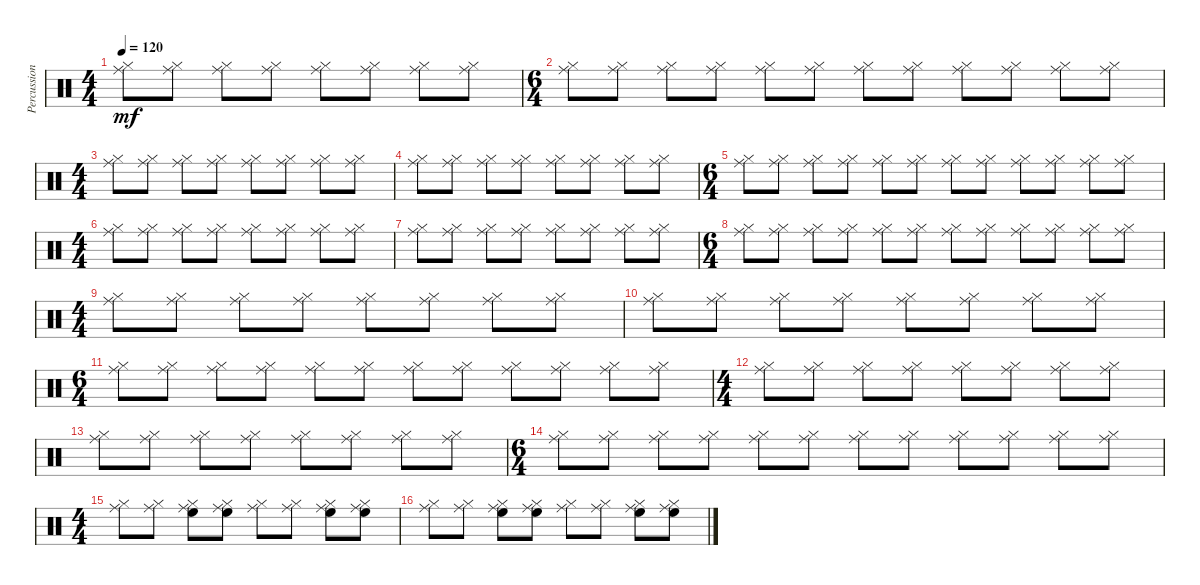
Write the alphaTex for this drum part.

\track ("Percussion" "Percussion") {instrument percussion}
\staff {score}
\articulation defaults
\ts (4 4)
\tempo 120
\clef neutral
\ks c
("Ride (middle)" "Hi-Hat (closed)").8{dy mf} ("Ride (middle)" "Hi-Hat (closed)").8 ("Ride (middle)" "Hi-Hat (closed)").8 ("Ride (middle)" "Hi-Hat (closed)").8 ("Ride (middle)" "Hi-Hat (closed)").8 ("Ride (middle)" "Hi-Hat (closed)").8 ("Ride (middle)" "Hi-Hat (closed)").8 ("Ride (middle)" "Hi-Hat (closed)").8 |
\ts (6 4)
("Ride (middle)" "Hi-Hat (closed)").8 ("Ride (middle)" "Hi-Hat (closed)").8 ("Ride (middle)" "Hi-Hat (closed)").8 ("Ride (middle)" "Hi-Hat (closed)").8 ("Ride (middle)" "Hi-Hat (closed)").8 ("Ride (middle)" "Hi-Hat (closed)").8 ("Ride (middle)" "Hi-Hat (closed)").8 ("Ride (middle)" "Hi-Hat (closed)").8 ("Ride (middle)" "Hi-Hat (closed)").8 ("Ride (middle)" "Hi-Hat (closed)").8 ("Ride (middle)" "Hi-Hat (closed)").8 ("Ride (middle)" "Hi-Hat (closed)").8 |
\ts (4 4)
("Ride (middle)" "Hi-Hat (closed)").8 ("Ride (middle)" "Hi-Hat (closed)").8 ("Ride (middle)" "Hi-Hat (closed)").8 ("Ride (middle)" "Hi-Hat (closed)").8 ("Ride (middle)" "Hi-Hat (closed)").8 ("Ride (middle)" "Hi-Hat (closed)").8 ("Ride (middle)" "Hi-Hat (closed)").8 ("Ride (middle)" "Hi-Hat (closed)").8 |
("Ride (middle)" "Hi-Hat (closed)").8 ("Ride (middle)" "Hi-Hat (closed)").8 ("Ride (middle)" "Hi-Hat (closed)").8 ("Ride (middle)" "Hi-Hat (closed)").8 ("Ride (middle)" "Hi-Hat (closed)").8 ("Ride (middle)" "Hi-Hat (closed)").8 ("Ride (middle)" "Hi-Hat (closed)").8 ("Ride (middle)" "Hi-Hat (closed)").8 |
\ts (6 4)
("Ride (middle)" "Hi-Hat (closed)").8 ("Ride (middle)" "Hi-Hat (closed)").8 ("Ride (middle)" "Hi-Hat (closed)").8 ("Ride (middle)" "Hi-Hat (closed)").8 ("Ride (middle)" "Hi-Hat (closed)").8 ("Ride (middle)" "Hi-Hat (closed)").8 ("Ride (middle)" "Hi-Hat (closed)").8 ("Ride (middle)" "Hi-Hat (closed)").8 ("Ride (middle)" "Hi-Hat (closed)").8 ("Ride (middle)" "Hi-Hat (closed)").8 ("Ride (middle)" "Hi-Hat (closed)").8 ("Ride (middle)" "Hi-Hat (closed)").8 |
\ts (4 4)
("Ride (middle)" "Hi-Hat (closed)").8 ("Ride (middle)" "Hi-Hat (closed)").8 ("Ride (middle)" "Hi-Hat (closed)").8 ("Ride (middle)" "Hi-Hat (closed)").8 ("Ride (middle)" "Hi-Hat (closed)").8 ("Ride (middle)" "Hi-Hat (closed)").8 ("Ride (middle)" "Hi-Hat (closed)").8 ("Ride (middle)" "Hi-Hat (closed)").8 |
("Ride (middle)" "Hi-Hat (closed)").8 ("Ride (middle)" "Hi-Hat (closed)").8 ("Ride (middle)" "Hi-Hat (closed)").8 ("Ride (middle)" "Hi-Hat (closed)").8 ("Ride (middle)" "Hi-Hat (closed)").8 ("Ride (middle)" "Hi-Hat (closed)").8 ("Ride (middle)" "Hi-Hat (closed)").8 ("Ride (middle)" "Hi-Hat (closed)").8 |
\ts (6 4)
("Ride (middle)" "Hi-Hat (closed)").8 ("Ride (middle)" "Hi-Hat (closed)").8 ("Ride (middle)" "Hi-Hat (closed)").8 ("Ride (middle)" "Hi-Hat (closed)").8 ("Ride (middle)" "Hi-Hat (closed)").8 ("Ride (middle)" "Hi-Hat (closed)").8 ("Ride (middle)" "Hi-Hat (closed)").8 ("Ride (middle)" "Hi-Hat (closed)").8 ("Ride (middle)" "Hi-Hat (closed)").8 ("Ride (middle)" "Hi-Hat (closed)").8 ("Ride (middle)" "Hi-Hat (closed)").8 ("Ride (middle)" "Hi-Hat (closed)").8 |
\ts (4 4)
("Ride (middle)" "Hi-Hat (closed)").8 ("Ride (middle)" "Hi-Hat (closed)").8 ("Ride (middle)" "Hi-Hat (closed)").8 ("Ride (middle)" "Hi-Hat (closed)").8 ("Ride (middle)" "Hi-Hat (closed)").8 ("Ride (middle)" "Hi-Hat (closed)").8 ("Ride (middle)" "Hi-Hat (closed)").8 ("Ride (middle)" "Hi-Hat (closed)").8 |
("Ride (middle)" "Hi-Hat (closed)").8 ("Ride (middle)" "Hi-Hat (closed)").8 ("Ride (middle)" "Hi-Hat (closed)").8 ("Ride (middle)" "Hi-Hat (closed)").8 ("Ride (middle)" "Hi-Hat (closed)").8 ("Ride (middle)" "Hi-Hat (closed)").8 ("Ride (middle)" "Hi-Hat (closed)").8 ("Ride (middle)" "Hi-Hat (closed)").8 |
\ts (6 4)
("Ride (middle)" "Hi-Hat (closed)").8 ("Ride (middle)" "Hi-Hat (closed)").8 ("Ride (middle)" "Hi-Hat (closed)").8 ("Ride (middle)" "Hi-Hat (closed)").8 ("Ride (middle)" "Hi-Hat (closed)").8 ("Ride (middle)" "Hi-Hat (closed)").8 ("Ride (middle)" "Hi-Hat (closed)").8 ("Ride (middle)" "Hi-Hat (closed)").8 ("Ride (middle)" "Hi-Hat (closed)").8 ("Ride (middle)" "Hi-Hat (closed)").8 ("Ride (middle)" "Hi-Hat (closed)").8 ("Ride (middle)" "Hi-Hat (closed)").8 |
\ts (4 4)
("Ride (middle)" "Hi-Hat (closed)").8 ("Ride (middle)" "Hi-Hat (closed)").8 ("Ride (middle)" "Hi-Hat (closed)").8 ("Ride (middle)" "Hi-Hat (closed)").8 ("Ride (middle)" "Hi-Hat (closed)").8 ("Ride (middle)" "Hi-Hat (closed)").8 ("Ride (middle)" "Hi-Hat (closed)").8 ("Ride (middle)" "Hi-Hat (closed)").8 |
("Ride (middle)" "Hi-Hat (closed)").8 ("Ride (middle)" "Hi-Hat (closed)").8 ("Ride (middle)" "Hi-Hat (closed)").8 ("Ride (middle)" "Hi-Hat (closed)").8 ("Ride (middle)" "Hi-Hat (closed)").8 ("Ride (middle)" "Hi-Hat (closed)").8 ("Ride (middle)" "Hi-Hat (closed)").8 ("Ride (middle)" "Hi-Hat (closed)").8 |
\ts (6 4)
("Ride (middle)" "Hi-Hat (closed)").8 ("Ride (middle)" "Hi-Hat (closed)").8 ("Ride (middle)" "Hi-Hat (closed)").8 ("Ride (middle)" "Hi-Hat (closed)").8 ("Ride (middle)" "Hi-Hat (closed)").8 ("Ride (middle)" "Hi-Hat (closed)").8 ("Ride (middle)" "Hi-Hat (closed)").8 ("Ride (middle)" "Hi-Hat (closed)").8 ("Ride (middle)" "Hi-Hat (closed)").8 ("Ride (middle)" "Hi-Hat (closed)").8 ("Ride (middle)" "Hi-Hat (closed)").8 ("Ride (middle)" "Hi-Hat (closed)").8 |
\ts (4 4)
("Ride (middle)" "Hi-Hat (closed)").8 ("Ride (middle)" "Hi-Hat (closed)").8 ("Ride (middle)" "Hi-Hat (closed)" "High Floor Tom (hit)").8 ("Ride (middle)" "Hi-Hat (closed)" "High Floor Tom (hit)").8 ("Ride (middle)" "Hi-Hat (closed)").8 ("Ride (middle)" "Hi-Hat (closed)").8 ("Ride (middle)" "Hi-Hat (closed)" "High Floor Tom (hit)").8 ("Ride (middle)" "Hi-Hat (closed)" "High Floor Tom (hit)").8 |
("Ride (middle)" "Hi-Hat (closed)").8 ("Ride (middle)" "Hi-Hat (closed)").8 ("Ride (middle)" "Hi-Hat (closed)" "High Floor Tom (hit)").8 ("Ride (middle)" "Hi-Hat (closed)" "High Floor Tom (hit)").8 ("Ride (middle)" "Hi-Hat (closed)").8 ("Ride (middle)" "Hi-Hat (closed)").8 ("Ride (middle)" "Hi-Hat (closed)" "High Floor Tom (hit)").8 ("Ride (middle)" "Hi-Hat (closed)" "High Floor Tom (hit)").8
